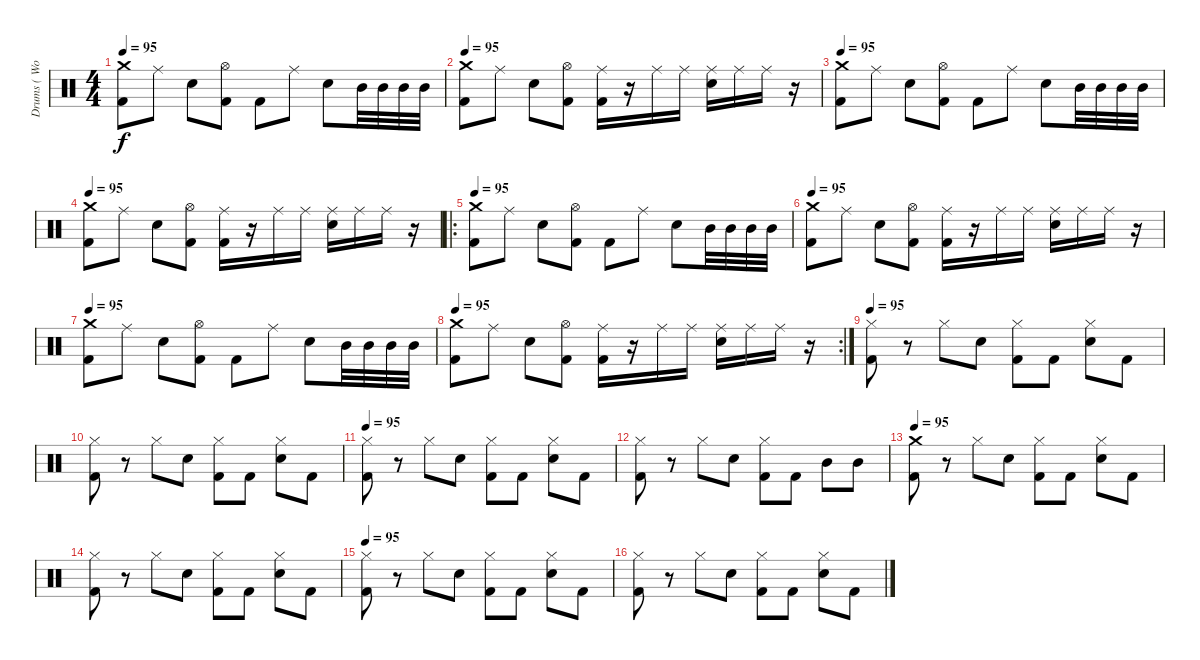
\track ("Drums ( Wolf Simons)" "Drums ( Wo") {instrument percussion}
\staff {score}
\articulation defaults
\ts (4 4)
\tempo 95
\clef neutral
\ks c
("Kick (hit) 2" "Crash medium (hit)").8{dy f} "Ride (middle)".8 "Electric Snare (hit)".8 ("Kick (hit) 2" "Hi-Hat (open)").8 "Kick (hit) 2".8 "Ride (middle)".8 "Electric Snare (hit)".8 "Mid Tom (hit)".32 "Mid Tom (hit)".32 "Mid Tom (hit)".32 "Mid Tom (hit)".32 |
\tempo 95
("Kick (hit) 2" "Crash medium (hit)").8 "Ride (middle)".8 "Electric Snare (hit)".8 ("Kick (hit) 2" "Hi-Hat (open)").8 ("Kick (hit) 2" "Ride (middle)").16 r.16 "Ride (middle)".16 "Ride (middle)".16 ("Ride (middle)" "Electric Snare (hit)").16 "Ride (middle)".16 "Ride (middle)".16 r.16 |
\tempo 95
("Kick (hit) 2" "Crash medium (hit)").8 "Ride (middle)".8 "Electric Snare (hit)".8 ("Kick (hit) 2" "Hi-Hat (open)").8 "Kick (hit) 2".8 "Ride (middle)".8 "Electric Snare (hit)".8 "Mid Tom (hit)".32 "Mid Tom (hit)".32 "Mid Tom (hit)".32 "Mid Tom (hit)".32 |
\tempo 95
("Kick (hit) 2" "Crash medium (hit)").8 "Ride (middle)".8 "Electric Snare (hit)".8 ("Kick (hit) 2" "Hi-Hat (open)").8 ("Kick (hit) 2" "Ride (middle)").16 r.16 "Ride (middle)".16 "Ride (middle)".16 ("Ride (middle)" "Electric Snare (hit)").16 "Ride (middle)".16 "Ride (middle)".16 r.16 |
\ro
\tempo 95
("Kick (hit) 2" "Crash medium (hit)").8 "Ride (middle)".8 "Electric Snare (hit)".8 ("Kick (hit) 2" "Hi-Hat (open)").8 "Kick (hit) 2".8 "Ride (middle)".8 "Electric Snare (hit)".8 "Mid Tom (hit)".32 "Mid Tom (hit)".32 "Mid Tom (hit)".32 "Mid Tom (hit)".32 |
\tempo 95
("Kick (hit) 2" "Crash medium (hit)").8 "Ride (middle)".8 "Electric Snare (hit)".8 ("Kick (hit) 2" "Hi-Hat (open)").8 ("Kick (hit) 2" "Ride (middle)").16 r.16 "Ride (middle)".16 "Ride (middle)".16 ("Ride (middle)" "Electric Snare (hit)").16 "Ride (middle)".16 "Ride (middle)".16 r.16 |
\tempo 95
("Kick (hit) 2" "Crash medium (hit)").8 "Ride (middle)".8 "Electric Snare (hit)".8 ("Kick (hit) 2" "Hi-Hat (open)").8 "Kick (hit) 2".8 "Ride (middle)".8 "Electric Snare (hit)".8 "Mid Tom (hit)".32 "Mid Tom (hit)".32 "Mid Tom (hit)".32 "Mid Tom (hit)".32 |
\rc 2
\tempo 95
("Kick (hit) 2" "Crash medium (hit)").8 "Ride (middle)".8 "Electric Snare (hit)".8 ("Kick (hit) 2" "Hi-Hat (open)").8 ("Kick (hit) 2" "Ride (middle)").16 r.16 "Ride (middle)".16 "Ride (middle)".16 ("Ride (middle)" "Electric Snare (hit)").16 "Ride (middle)".16 "Ride (middle)".16 r.16 |
\tempo 95
("Hi-Hat (closed)" "Kick (hit) 2").8 r.8 "Hi-Hat (closed)".8 "Electric Snare (hit)".8 ("Hi-Hat (closed)" "Kick (hit) 2").8 "Kick (hit) 2".8 ("Hi-Hat (closed)" "Electric Snare (hit)").8 "Kick (hit) 2".8 |
("Hi-Hat (closed)" "Kick (hit) 2").8 r.8 "Hi-Hat (closed)".8 "Electric Snare (hit)".8 ("Hi-Hat (closed)" "Kick (hit) 2").8 "Kick (hit) 2".8 ("Hi-Hat (closed)" "Electric Snare (hit)").8 "Kick (hit) 2".8 |
\tempo 95
("Hi-Hat (closed)" "Kick (hit) 2").8 r.8 "Hi-Hat (closed)".8 "Electric Snare (hit)".8 ("Hi-Hat (closed)" "Kick (hit) 2").8 "Kick (hit) 2".8 ("Hi-Hat (closed)" "Electric Snare (hit)").8 "Kick (hit) 2".8 |
("Hi-Hat (closed)" "Kick (hit) 2").8 r.8 "Hi-Hat (closed)".8 "Electric Snare (hit)".8 ("Hi-Hat (closed)" "Kick (hit) 2").8 "Kick (hit) 2".8 "Mid Tom (hit)".8 "Mid Tom (hit)".8 |
\tempo 95
("Crash medium (hit)" "Kick (hit) 2").8 r.8 "Hi-Hat (closed)".8 "Electric Snare (hit)".8 ("Hi-Hat (closed)" "Kick (hit) 2").8 "Kick (hit) 2".8 ("Hi-Hat (closed)" "Electric Snare (hit)").8 "Kick (hit) 2".8 |
("Hi-Hat (closed)" "Kick (hit) 2").8 r.8 "Hi-Hat (closed)".8 "Electric Snare (hit)".8 ("Hi-Hat (closed)" "Kick (hit) 2").8 "Kick (hit) 2".8 ("Hi-Hat (closed)" "Electric Snare (hit)").8 "Kick (hit) 2".8 |
\tempo 95
("Hi-Hat (closed)" "Kick (hit) 2").8 r.8 "Hi-Hat (closed)".8 "Electric Snare (hit)".8 ("Hi-Hat (closed)" "Kick (hit) 2").8 "Kick (hit) 2".8 ("Hi-Hat (closed)" "Electric Snare (hit)").8 "Kick (hit) 2".8 |
("Hi-Hat (closed)" "Kick (hit) 2").8 r.8 "Hi-Hat (closed)".8 "Electric Snare (hit)".8 ("Hi-Hat (closed)" "Kick (hit) 2").8 "Kick (hit) 2".8 ("Hi-Hat (closed)" "Electric Snare (hit)").8 "Kick (hit) 2".8
